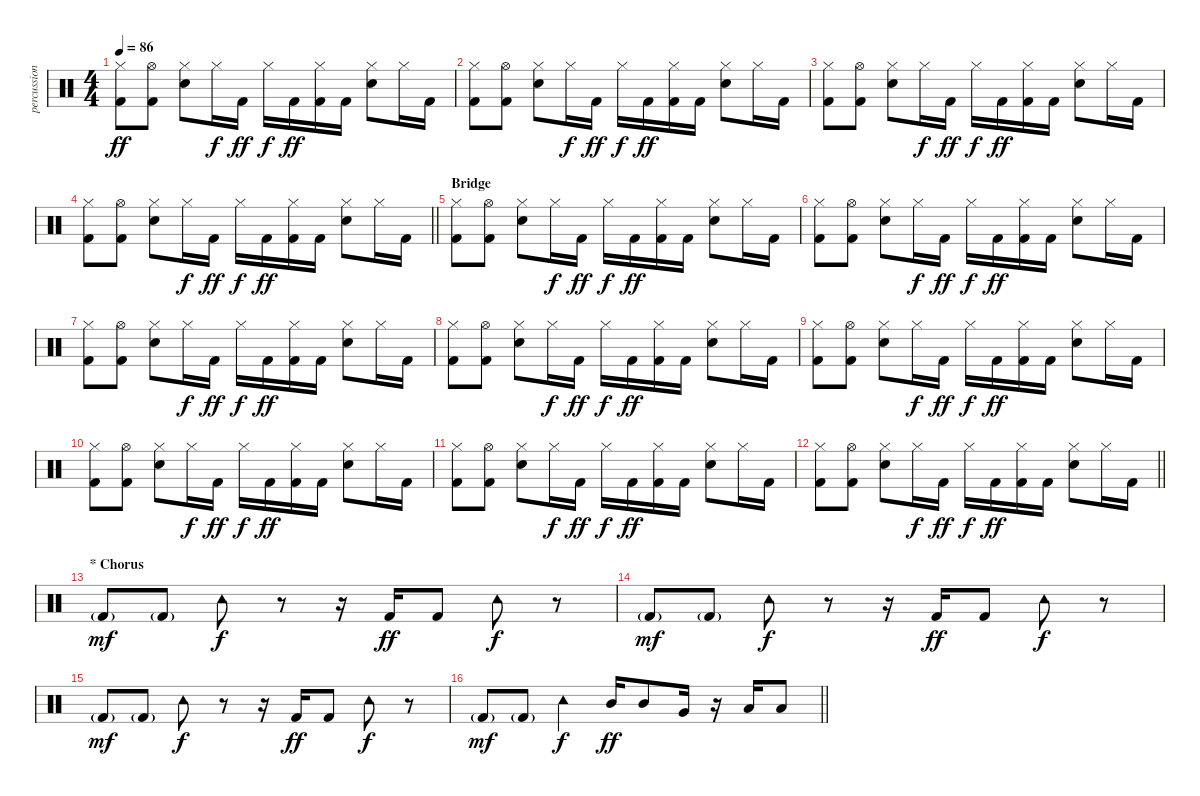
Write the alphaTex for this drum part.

\track ("percussion" "percussion") {instrument percussion}
\staff {score}
\articulation defaults
\ts (4 4)
\tempo 86
\clef neutral
\ks c
("Hi-Hat (closed)" "Kick (hit) 2").8{dy ff} ("Hi-Hat (open)" "Kick (hit) 2").8 ("Electric Snare (hit)" "Hi-Hat (closed)").8 "Hi-Hat (closed)".16{dy f} "Kick (hit) 2".16{dy ff} "Hi-Hat (closed)".16{dy f} "Kick (hit) 2".16{dy ff} ("Hi-Hat (closed)" "Kick (hit) 2").16 "Kick (hit) 2".16 ("Electric Snare (hit)" "Hi-Hat (closed)").8 "Hi-Hat (closed)".16 "Kick (hit) 2".16 |
("Hi-Hat (closed)" "Kick (hit) 2").8 ("Hi-Hat (open)" "Kick (hit) 2").8 ("Electric Snare (hit)" "Hi-Hat (closed)").8 "Hi-Hat (closed)".16{dy f} "Kick (hit) 2".16{dy ff} "Hi-Hat (closed)".16{dy f} "Kick (hit) 2".16{dy ff} ("Hi-Hat (closed)" "Kick (hit) 2").16 "Kick (hit) 2".16 ("Electric Snare (hit)" "Hi-Hat (closed)").8 "Hi-Hat (closed)".16 "Kick (hit) 2".16 |
("Hi-Hat (closed)" "Kick (hit) 2").8 ("Hi-Hat (open)" "Kick (hit) 2").8 ("Electric Snare (hit)" "Hi-Hat (closed)").8 "Hi-Hat (closed)".16{dy f} "Kick (hit) 2".16{dy ff} "Hi-Hat (closed)".16{dy f} "Kick (hit) 2".16{dy ff} ("Hi-Hat (closed)" "Kick (hit) 2").16 "Kick (hit) 2".16 ("Electric Snare (hit)" "Hi-Hat (closed)").8 "Hi-Hat (closed)".16 "Kick (hit) 2".16 |
\barLineRight lightlight
("Hi-Hat (closed)" "Kick (hit) 2").8 ("Hi-Hat (open)" "Kick (hit) 2").8 ("Electric Snare (hit)" "Hi-Hat (closed)").8 "Hi-Hat (closed)".16{dy f} "Kick (hit) 2".16{dy ff} "Hi-Hat (closed)".16{dy f} "Kick (hit) 2".16{dy ff} ("Hi-Hat (closed)" "Kick (hit) 2").16 "Kick (hit) 2".16 ("Electric Snare (hit)" "Hi-Hat (closed)").8 "Hi-Hat (closed)".16 "Kick (hit) 2".16 |
\section ("" "Bridge")
("Hi-Hat (closed)" "Kick (hit) 2").8 ("Hi-Hat (open)" "Kick (hit) 2").8 ("Electric Snare (hit)" "Hi-Hat (closed)").8 "Hi-Hat (closed)".16{dy f} "Kick (hit) 2".16{dy ff} "Hi-Hat (closed)".16{dy f} "Kick (hit) 2".16{dy ff} ("Hi-Hat (closed)" "Kick (hit) 2").16 "Kick (hit) 2".16 ("Electric Snare (hit)" "Hi-Hat (closed)").8 "Hi-Hat (closed)".16 "Kick (hit) 2".16 |
("Hi-Hat (closed)" "Kick (hit) 2").8 ("Hi-Hat (open)" "Kick (hit) 2").8 ("Electric Snare (hit)" "Hi-Hat (closed)").8 "Hi-Hat (closed)".16{dy f} "Kick (hit) 2".16{dy ff} "Hi-Hat (closed)".16{dy f} "Kick (hit) 2".16{dy ff} ("Hi-Hat (closed)" "Kick (hit) 2").16 "Kick (hit) 2".16 ("Electric Snare (hit)" "Hi-Hat (closed)").8 "Hi-Hat (closed)".16 "Kick (hit) 2".16 |
("Hi-Hat (closed)" "Kick (hit) 2").8 ("Hi-Hat (open)" "Kick (hit) 2").8 ("Electric Snare (hit)" "Hi-Hat (closed)").8 "Hi-Hat (closed)".16{dy f} "Kick (hit) 2".16{dy ff} "Hi-Hat (closed)".16{dy f} "Kick (hit) 2".16{dy ff} ("Hi-Hat (closed)" "Kick (hit) 2").16 "Kick (hit) 2".16 ("Electric Snare (hit)" "Hi-Hat (closed)").8 "Hi-Hat (closed)".16 "Kick (hit) 2".16 |
("Hi-Hat (closed)" "Kick (hit) 2").8 ("Hi-Hat (open)" "Kick (hit) 2").8 ("Electric Snare (hit)" "Hi-Hat (closed)").8 "Hi-Hat (closed)".16{dy f} "Kick (hit) 2".16{dy ff} "Hi-Hat (closed)".16{dy f} "Kick (hit) 2".16{dy ff} ("Hi-Hat (closed)" "Kick (hit) 2").16 "Kick (hit) 2".16 ("Electric Snare (hit)" "Hi-Hat (closed)").8 "Hi-Hat (closed)".16 "Kick (hit) 2".16 |
("Hi-Hat (closed)" "Kick (hit) 2").8 ("Hi-Hat (open)" "Kick (hit) 2").8 ("Electric Snare (hit)" "Hi-Hat (closed)").8 "Hi-Hat (closed)".16{dy f} "Kick (hit) 2".16{dy ff} "Hi-Hat (closed)".16{dy f} "Kick (hit) 2".16{dy ff} ("Hi-Hat (closed)" "Kick (hit) 2").16 "Kick (hit) 2".16 ("Electric Snare (hit)" "Hi-Hat (closed)").8 "Hi-Hat (closed)".16 "Kick (hit) 2".16 |
("Hi-Hat (closed)" "Kick (hit) 2").8 ("Hi-Hat (open)" "Kick (hit) 2").8 ("Electric Snare (hit)" "Hi-Hat (closed)").8 "Hi-Hat (closed)".16{dy f} "Kick (hit) 2".16{dy ff} "Hi-Hat (closed)".16{dy f} "Kick (hit) 2".16{dy ff} ("Hi-Hat (closed)" "Kick (hit) 2").16 "Kick (hit) 2".16 ("Electric Snare (hit)" "Hi-Hat (closed)").8 "Hi-Hat (closed)".16 "Kick (hit) 2".16 |
("Hi-Hat (closed)" "Kick (hit) 2").8 ("Hi-Hat (open)" "Kick (hit) 2").8 ("Electric Snare (hit)" "Hi-Hat (closed)").8 "Hi-Hat (closed)".16{dy f} "Kick (hit) 2".16{dy ff} "Hi-Hat (closed)".16{dy f} "Kick (hit) 2".16{dy ff} ("Hi-Hat (closed)" "Kick (hit) 2").16 "Kick (hit) 2".16 ("Electric Snare (hit)" "Hi-Hat (closed)").8 "Hi-Hat (closed)".16 "Kick (hit) 2".16 |
\barLineRight lightlight
("Hi-Hat (closed)" "Kick (hit) 2").8 ("Hi-Hat (open)" "Kick (hit) 2").8 ("Electric Snare (hit)" "Hi-Hat (closed)").8 "Hi-Hat (closed)".16{dy f} "Kick (hit) 2".16{dy ff} "Hi-Hat (closed)".16{dy f} "Kick (hit) 2".16{dy ff} ("Hi-Hat (closed)" "Kick (hit) 2").16 "Kick (hit) 2".16 ("Electric Snare (hit)" "Hi-Hat (closed)").8 "Hi-Hat (closed)".16 "Kick (hit) 2".16 |
\section ("" "* Chorus")
"Kick (hit) 2"{g}.8{dy mf} "Kick (hit) 2"{g}.8 "Tambourine (hit)".8{dy f} r.8 r.16 "Kick (hit) 2".16{dy ff} "Kick (hit) 2".8 "Tambourine (hit)".8{dy f} r.8 |
"Kick (hit) 2"{g}.8{dy mf} "Kick (hit) 2"{g}.8 "Tambourine (hit)".8{dy f} r.8 r.16 "Kick (hit) 2".16{dy ff} "Kick (hit) 2".8 "Tambourine (hit)".8{dy f} r.8 |
"Kick (hit) 2"{g}.8{dy mf} "Kick (hit) 2"{g}.8 "Tambourine (hit)".8{dy f} r.8 r.16 "Kick (hit) 2".16{dy ff} "Kick (hit) 2".8 "Tambourine (hit)".8{dy f} r.8 |
\barLineRight lightlight "Kick (hit) 2"{g}.8{dy mf} "Kick (hit) 2"{g}.8 "Tambourine (hit)".4{dy f} "Mid Tom (hit)".16{dy ff} "Mid Tom (hit)".8 "Very Low Tom (hit)".16
r.16 "Low Floor Tom (hit)".16 "Low Floor Tom (hit)".8
